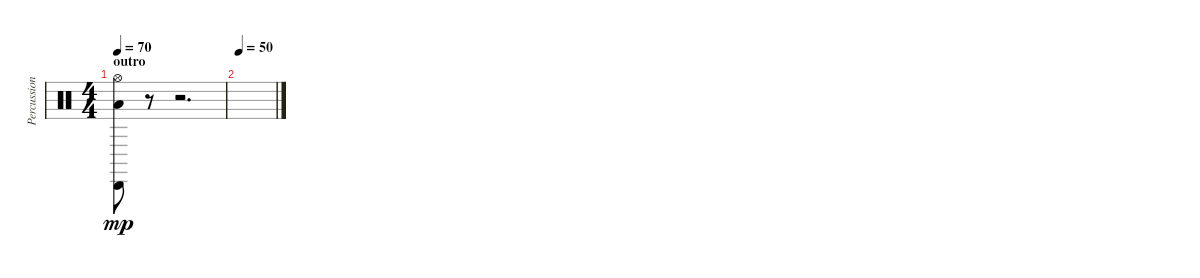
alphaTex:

\track ("Percussions" "Percussion") {instrument percussion}
\staff {score}
\articulation defaults
\ts (4 4)
\section ("" "outro")
\tempo 70
\clef neutral
\ks c
("Hi-Hat (open)" "Cabasa (hit)" "Low Floor Tom (hit)").8{dy mp} r.8 r.2{d} |
\tempo 50
